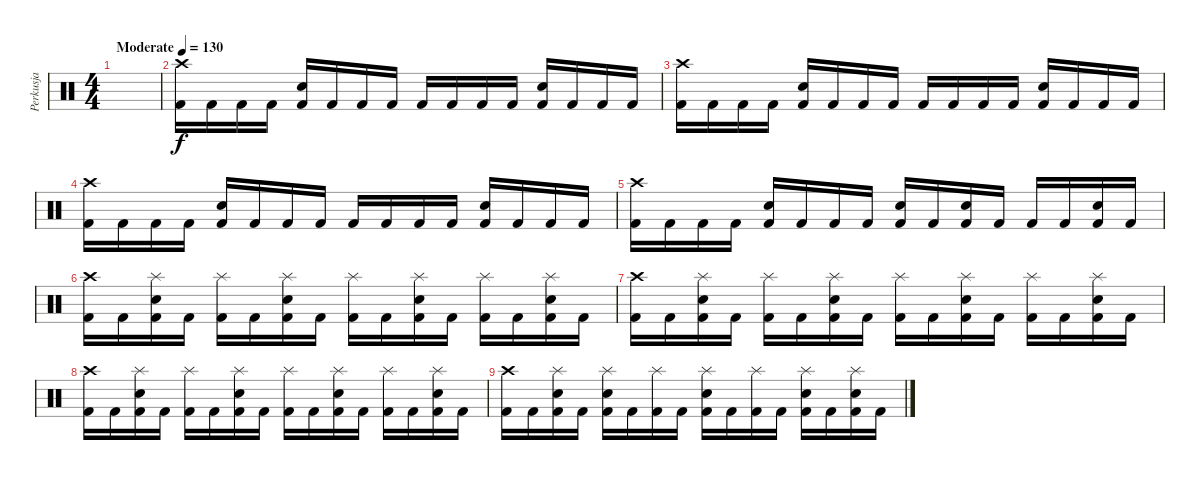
\track ("Perkusja" "Perkusja") {instrument percussion}
\staff {score}
\articulation defaults
\ts (4 4)
\tempo (130 "Moderate")
\clef neutral
\ks c
|
("Crash high (hit)" "Kick (hit) 2").16 "Kick (hit) 2".16 "Kick (hit) 2".16 "Kick (hit) 2".16 ("Snare (hit) 2" "Kick (hit) 2").16 "Kick (hit) 2".16 "Kick (hit) 2".16 "Kick (hit) 2".16 "Kick (hit) 2".16 "Kick (hit) 2".16 "Kick (hit) 2".16 "Kick (hit) 2".16 ("Snare (hit) 2" "Kick (hit) 2").16 "Kick (hit) 2".16 "Kick (hit) 2".16 "Kick (hit) 2".16 |
("Crash high (hit)" "Kick (hit) 2").16 "Kick (hit) 2".16 "Kick (hit) 2".16 "Kick (hit) 2".16 ("Snare (hit) 2" "Kick (hit) 2").16 "Kick (hit) 2".16 "Kick (hit) 2".16 "Kick (hit) 2".16 "Kick (hit) 2".16 "Kick (hit) 2".16 "Kick (hit) 2".16 "Kick (hit) 2".16 ("Snare (hit) 2" "Kick (hit) 2").16 "Kick (hit) 2".16 "Kick (hit) 2".16 "Kick (hit) 2".16 |
("Crash high (hit)" "Kick (hit) 2").16 "Kick (hit) 2".16 "Kick (hit) 2".16 "Kick (hit) 2".16 ("Snare (hit) 2" "Kick (hit) 2").16 "Kick (hit) 2".16 "Kick (hit) 2".16 "Kick (hit) 2".16 "Kick (hit) 2".16 "Kick (hit) 2".16 "Kick (hit) 2".16 "Kick (hit) 2".16 ("Snare (hit) 2" "Kick (hit) 2").16 "Kick (hit) 2".16 "Kick (hit) 2".16 "Kick (hit) 2".16 |
("Crash high (hit)" "Kick (hit) 2").16 "Kick (hit) 2".16 "Kick (hit) 2".16 "Kick (hit) 2".16 ("Snare (hit) 2" "Kick (hit) 2").16 "Kick (hit) 2".16 "Kick (hit) 2".16 "Kick (hit) 2".16 ("Snare (hit) 2" "Kick (hit) 2").16 "Kick (hit) 2".16 ("Snare (hit) 2" "Kick (hit) 2").16 "Kick (hit) 2".16 "Kick (hit) 2".16 "Kick (hit) 2".16 ("Snare (hit) 2" "Kick (hit) 2").16 "Kick (hit) 2".16 |
("Crash high (hit)" "Kick (hit) 2").16 "Kick (hit) 2".16 ("Splash (hit)" "Snare (hit) 2" "Kick (hit) 2").16 "Kick (hit) 2".16 ("Splash (hit)" "Kick (hit) 2").16 "Kick (hit) 2".16 ("Splash (hit)" "Snare (hit) 2" "Kick (hit) 2").16 "Kick (hit) 2".16 ("Splash (hit)" "Kick (hit) 2").16 "Kick (hit) 2".16 ("Splash (hit)" "Snare (hit) 2" "Kick (hit) 2").16 "Kick (hit) 2".16 ("Splash (hit)" "Kick (hit) 2").16 "Kick (hit) 2".16 ("Splash (hit)" "Snare (hit) 2" "Kick (hit) 2").16 "Kick (hit) 2".16 |
("Crash high (hit)" "Kick (hit) 2").16 "Kick (hit) 2".16 ("Splash (hit)" "Snare (hit) 2" "Kick (hit) 2").16 "Kick (hit) 2".16 ("Splash (hit)" "Kick (hit) 2").16 "Kick (hit) 2".16 ("Splash (hit)" "Snare (hit) 2" "Kick (hit) 2").16 "Kick (hit) 2".16 ("Splash (hit)" "Kick (hit) 2").16 "Kick (hit) 2".16 ("Splash (hit)" "Snare (hit) 2" "Kick (hit) 2").16 "Kick (hit) 2".16 ("Splash (hit)" "Kick (hit) 2").16 "Kick (hit) 2".16 ("Splash (hit)" "Snare (hit) 2" "Kick (hit) 2").16 "Kick (hit) 2".16 |
("Crash high (hit)" "Kick (hit) 2").16 "Kick (hit) 2".16 ("Splash (hit)" "Snare (hit) 2" "Kick (hit) 2").16 "Kick (hit) 2".16 ("Splash (hit)" "Kick (hit) 2").16 "Kick (hit) 2".16 ("Splash (hit)" "Snare (hit) 2" "Kick (hit) 2").16 "Kick (hit) 2".16 ("Splash (hit)" "Kick (hit) 2").16 "Kick (hit) 2".16 ("Splash (hit)" "Snare (hit) 2" "Kick (hit) 2").16 "Kick (hit) 2".16 ("Splash (hit)" "Kick (hit) 2").16 "Kick (hit) 2".16 ("Splash (hit)" "Snare (hit) 2" "Kick (hit) 2").16 "Kick (hit) 2".16 |
("Crash high (hit)" "Kick (hit) 2").16 "Kick (hit) 2".16 ("Splash (hit)" "Snare (hit) 2" "Kick (hit) 2").16 "Kick (hit) 2".16 ("Splash (hit)" "Snare (hit) 2" "Kick (hit) 2").16 "Kick (hit) 2".16 ("Splash (hit)" "Kick (hit) 2").16 "Kick (hit) 2".16 ("Splash (hit)" "Snare (hit) 2" "Kick (hit) 2").16 "Kick (hit) 2".16 ("Splash (hit)" "Kick (hit) 2").16 "Kick (hit) 2".16 ("Splash (hit)" "Snare (hit) 2" "Kick (hit) 2").16 "Kick (hit) 2".16 ("Splash (hit)" "Snare (hit) 2" "Kick (hit) 2").16 "Kick (hit) 2".16
